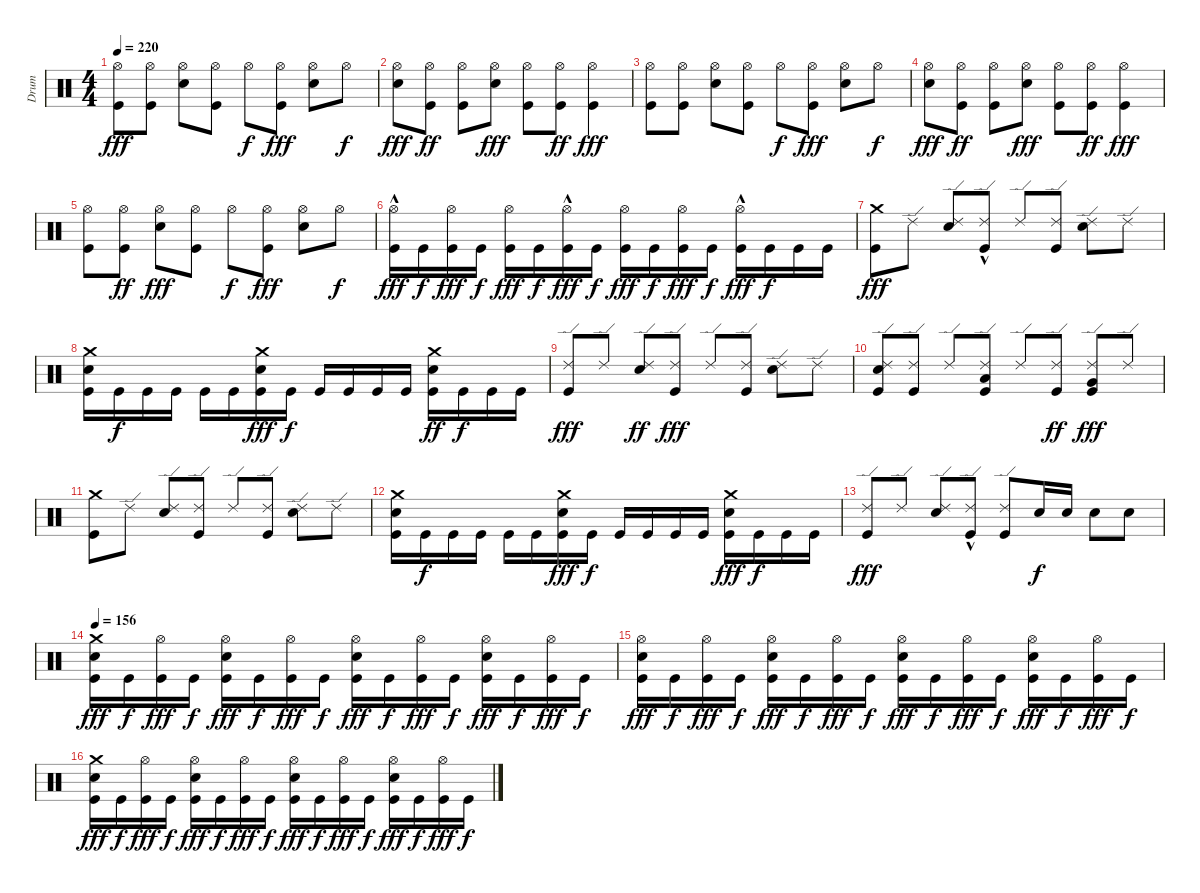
\track ("Drum" "Drum") {instrument percussion}
\staff {score}
\articulation defaults
\ts (4 4)
\tempo 220
\clef neutral
\ks c
("Hi-Hat (open)" "Kick (hit)").8{dy fff} ("Hi-Hat (open)" "Kick (hit)").8 ("Hi-Hat (open)" "Snare (hit) 2").8 ("Hi-Hat (open)" "Kick (hit)").8 "Hi-Hat (open)".8{dy f} ("Hi-Hat (open)" "Kick (hit)").8{dy fff} ("Hi-Hat (open)" "Snare (hit) 2").8 "Hi-Hat (open)".8{dy f} |
("Hi-Hat (open)" "Snare (hit) 2").8{dy fff} ("Hi-Hat (open)" "Kick (hit)").8{dy ff} ("Hi-Hat (open)" "Kick (hit)").8 ("Hi-Hat (open)" "Snare (hit) 2").8{dy fff} ("Hi-Hat (open)" "Kick (hit)").8 ("Hi-Hat (open)" "Kick (hit)").8{dy ff} ("Hi-Hat (open)" "Kick (hit)").4{dy fff} |
("Hi-Hat (open)" "Kick (hit)").8 ("Hi-Hat (open)" "Kick (hit)").8 ("Hi-Hat (open)" "Snare (hit) 2").8 ("Hi-Hat (open)" "Kick (hit)").8 "Hi-Hat (open)".8{dy f} ("Hi-Hat (open)" "Kick (hit)").8{dy fff} ("Hi-Hat (open)" "Snare (hit) 2").8 "Hi-Hat (open)".8{dy f} |
("Hi-Hat (open)" "Snare (hit) 2").8{dy fff} ("Hi-Hat (open)" "Kick (hit)").8{dy ff} ("Hi-Hat (open)" "Kick (hit)").8 ("Hi-Hat (open)" "Snare (hit) 2").8{dy fff} ("Hi-Hat (open)" "Kick (hit)").8 ("Hi-Hat (open)" "Kick (hit)").8{dy ff} ("Hi-Hat (open)" "Kick (hit)").4{dy fff} |
("Hi-Hat (open)" "Kick (hit)").8 ("Hi-Hat (open)" "Kick (hit)").8{dy ff} ("Hi-Hat (open)" "Snare (hit) 2").8{dy fff} ("Hi-Hat (open)" "Kick (hit)").8 "Hi-Hat (open)".8{dy f} ("Hi-Hat (open)" "Kick (hit)").8{dy fff} ("Hi-Hat (open)" "Snare (hit) 2").8 "Hi-Hat (open)".8{dy f} |
("Hi-Hat (open)"{hac} "Kick (hit)").16{dy fff} "Kick (hit)".16{dy f} ("Hi-Hat (open)" "Kick (hit)").16{dy fff} "Kick (hit)".16{dy f} ("Hi-Hat (open)" "Kick (hit)").16{dy fff} "Kick (hit)".16{dy f} ("Hi-Hat (open)"{hac} "Kick (hit)").16{dy fff} "Kick (hit)".16{dy f} ("Hi-Hat (open)" "Kick (hit)").16{dy fff} "Kick (hit)".16{dy f} ("Hi-Hat (open)" "Kick (hit)").16{dy fff} "Kick (hit)".16{dy f} ("Hi-Hat (open)"{hac} "Kick (hit)").16{dy fff} "Kick (hit)".16{dy f} "Kick (hit)".16 "Kick (hit)".16 |
("Crash medium (hit)" "Kick (hit)").8{dy fff} "Ride (edge) 2".8 ("Ride (edge) 2" "Snare (hit) 2").8 ("Ride (edge) 2"{hac} "Kick (hit)").8 "Ride (edge) 2".8 ("Ride (edge) 2" "Kick (hit)").8 ("Ride (edge) 2" "Snare (hit) 2").8 "Ride (edge) 2".8 |
("Crash medium (hit)" "Snare (hit) 2" "Kick (hit)").16 "Kick (hit)".16{dy f} "Kick (hit)".16 "Kick (hit)".16 "Kick (hit)".16 "Kick (hit)".16 ("Crash medium (hit)" "Snare (hit) 2" "Kick (hit)").16{dy fff} "Kick (hit)".16{dy f} "Kick (hit)".16 "Kick (hit)".16 "Kick (hit)".16 "Kick (hit)".16 ("Crash medium (hit)" "Snare (hit) 2" "Kick (hit)").16{dy ff} "Kick (hit)".16{dy f} "Kick (hit)".16 "Kick (hit)".16 |
("Ride (edge) 2" "Kick (hit)").8{dy fff} "Ride (edge) 2".8 ("Ride (edge) 2" "Snare (hit) 2").8{dy ff} ("Ride (edge) 2" "Kick (hit)").8{dy fff} "Ride (edge) 2".8 ("Ride (edge) 2" "Kick (hit)").8 ("Ride (edge) 2" "Snare (hit) 2").8 "Ride (edge) 2".8 |
("Ride (edge) 2" "Snare (hit) 2" "Kick (hit)").8 ("Ride (edge) 2" "Kick (hit)").8 "Ride (edge) 2".8 ("Ride (edge) 2" "Low Floor Tom (hit)" "Kick (hit)").8 "Ride (edge) 2".8 ("Ride (edge) 2" "Kick (hit)").8{dy ff} ("Ride (edge) 2" "Very Low Tom (hit)" "Kick (hit)").8{dy fff} "Ride (edge) 2".8 |
("Crash medium (hit)" "Kick (hit)").8 "Ride (edge) 2".8 ("Ride (edge) 2" "Snare (hit) 2").8 ("Ride (edge) 2" "Kick (hit)").8 "Ride (edge) 2".8 ("Ride (edge) 2" "Kick (hit)").8 ("Ride (edge) 2" "Snare (hit) 2").8 "Ride (edge) 2".8 |
("Crash medium (hit)" "Snare (hit) 2" "Kick (hit)").16 "Kick (hit)".16{dy f} "Kick (hit)".16 "Kick (hit)".16 "Kick (hit)".16 "Kick (hit)".16 ("Crash medium (hit)" "Snare (hit) 2" "Kick (hit)").16{dy fff} "Kick (hit)".16{dy f} "Kick (hit)".16 "Kick (hit)".16 "Kick (hit)".16 "Kick (hit)".16 ("Crash medium (hit)" "Snare (hit) 2" "Kick (hit)").16{dy fff} "Kick (hit)".16{dy f} "Kick (hit)".16 "Kick (hit)".16 |
("Ride (edge) 2" "Kick (hit)").8{dy fff} "Ride (edge) 2".8 ("Ride (edge) 2" "Snare (hit) 2").8 ("Ride (edge) 2"{hac} "Kick (hit)").8 ("Ride (edge) 2" "Kick (hit)").8 "Snare (hit) 2".16{dy f} "Snare (hit) 2".16 "Snare (hit) 2".8 "Snare (hit) 2".8 |
\tempo 156
("Crash medium (hit)" "Snare (hit) 2" "Kick (hit)").16{dy fff} "Kick (hit)".16{dy f} ("Hi-Hat (open)" "Kick (hit)").16{dy fff} "Kick (hit)".16{dy f} ("Hi-Hat (open)" "Snare (hit) 2" "Kick (hit)").16{dy fff} "Kick (hit)".16{dy f} ("Hi-Hat (open)" "Kick (hit)").16{dy fff} "Kick (hit)".16{dy f} ("Hi-Hat (open)" "Snare (hit) 2" "Kick (hit)").16{dy fff} "Kick (hit)".16{dy f} ("Hi-Hat (open)" "Kick (hit)").16{dy fff} "Kick (hit)".16{dy f} ("Hi-Hat (open)" "Snare (hit) 2" "Kick (hit)").16{dy fff} "Kick (hit)".16{dy f} ("Hi-Hat (open)" "Kick (hit)").16{dy fff} "Kick (hit)".16{dy f} |
("Hi-Hat (open)" "Snare (hit) 2" "Kick (hit)").16{dy fff} "Kick (hit)".16{dy f} ("Hi-Hat (open)" "Kick (hit)").16{dy fff} "Kick (hit)".16{dy f} ("Hi-Hat (open)" "Snare (hit) 2" "Kick (hit)").16{dy fff} "Kick (hit)".16{dy f} ("Hi-Hat (open)" "Kick (hit)").16{dy fff} "Kick (hit)".16{dy f} ("Hi-Hat (open)" "Snare (hit) 2" "Kick (hit)").16{dy fff} "Kick (hit)".16{dy f} ("Hi-Hat (open)" "Kick (hit)").16{dy fff} "Kick (hit)".16{dy f} ("Hi-Hat (open)" "Snare (hit) 2" "Kick (hit)").16{dy fff} "Kick (hit)".16{dy f} ("Hi-Hat (open)" "Kick (hit)").16{dy fff} "Kick (hit)".16{dy f} |
("Crash medium (hit)" "Snare (hit) 2" "Kick (hit)").16{dy fff} "Kick (hit)".16{dy f} ("Hi-Hat (open)" "Kick (hit)").16{dy fff} "Kick (hit)".16{dy f} ("Hi-Hat (open)" "Snare (hit) 2" "Kick (hit)").16{dy fff} "Kick (hit)".16{dy f} ("Hi-Hat (open)" "Kick (hit)").16{dy fff} "Kick (hit)".16{dy f} ("Hi-Hat (open)" "Snare (hit) 2" "Kick (hit)").16{dy fff} "Kick (hit)".16{dy f} ("Hi-Hat (open)" "Kick (hit)").16{dy fff} "Kick (hit)".16{dy f} ("Hi-Hat (open)" "Snare (hit) 2" "Kick (hit)").16{dy fff} "Kick (hit)".16{dy f} ("Hi-Hat (open)" "Kick (hit)").16{dy fff} "Kick (hit)".16{dy f}
